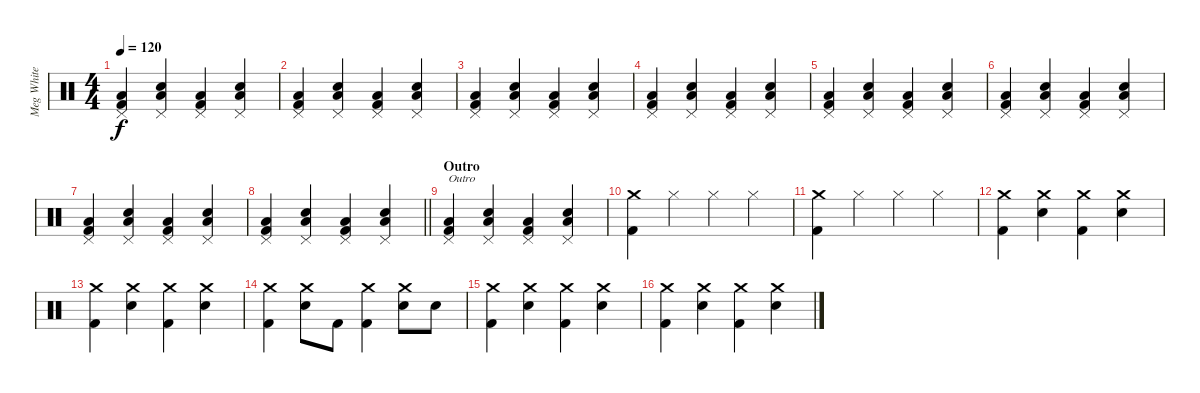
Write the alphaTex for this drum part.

\track ("Meg White" "Meg White") {instrument percussion}
\staff {score}
\articulation defaults
\ts (4 4)
\tempo 120
\clef neutral
\ks c
("Pedal Hi-Hat (hit)" "Low Floor Tom (hit)" "Kick (hit) 2").4{dy f} ("Pedal Hi-Hat (hit)" "Low Floor Tom (hit)" "Snare (hit) 2").4 ("Pedal Hi-Hat (hit)" "Low Floor Tom (hit)" "Kick (hit) 2").4 ("Pedal Hi-Hat (hit)" "Low Floor Tom (hit)" "Snare (hit) 2").4 |
("Pedal Hi-Hat (hit)" "Low Floor Tom (hit)" "Kick (hit) 2").4 ("Pedal Hi-Hat (hit)" "Low Floor Tom (hit)" "Snare (hit) 2").4 ("Pedal Hi-Hat (hit)" "Low Floor Tom (hit)" "Kick (hit) 2").4 ("Pedal Hi-Hat (hit)" "Low Floor Tom (hit)" "Snare (hit) 2").4 |
("Pedal Hi-Hat (hit)" "Low Floor Tom (hit)" "Kick (hit) 2").4 ("Pedal Hi-Hat (hit)" "Low Floor Tom (hit)" "Snare (hit) 2").4 ("Pedal Hi-Hat (hit)" "Low Floor Tom (hit)" "Kick (hit) 2").4 ("Pedal Hi-Hat (hit)" "Low Floor Tom (hit)" "Snare (hit) 2").4 |
("Pedal Hi-Hat (hit)" "Low Floor Tom (hit)" "Kick (hit) 2").4 ("Pedal Hi-Hat (hit)" "Low Floor Tom (hit)" "Snare (hit) 2").4 ("Pedal Hi-Hat (hit)" "Low Floor Tom (hit)" "Kick (hit) 2").4 ("Pedal Hi-Hat (hit)" "Low Floor Tom (hit)" "Snare (hit) 2").4 |
("Pedal Hi-Hat (hit)" "Low Floor Tom (hit)" "Kick (hit) 2").4 ("Pedal Hi-Hat (hit)" "Low Floor Tom (hit)" "Snare (hit) 2").4 ("Pedal Hi-Hat (hit)" "Low Floor Tom (hit)" "Kick (hit) 2").4 ("Pedal Hi-Hat (hit)" "Low Floor Tom (hit)" "Snare (hit) 2").4 |
("Pedal Hi-Hat (hit)" "Low Floor Tom (hit)" "Kick (hit) 2").4 ("Pedal Hi-Hat (hit)" "Low Floor Tom (hit)" "Snare (hit) 2").4 ("Pedal Hi-Hat (hit)" "Low Floor Tom (hit)" "Kick (hit) 2").4 ("Pedal Hi-Hat (hit)" "Low Floor Tom (hit)" "Snare (hit) 2").4 |
("Pedal Hi-Hat (hit)" "Low Floor Tom (hit)" "Kick (hit) 2").4 ("Pedal Hi-Hat (hit)" "Low Floor Tom (hit)" "Snare (hit) 2").4 ("Pedal Hi-Hat (hit)" "Low Floor Tom (hit)" "Kick (hit) 2").4 ("Pedal Hi-Hat (hit)" "Low Floor Tom (hit)" "Snare (hit) 2").4 |
\barLineRight lightlight
("Pedal Hi-Hat (hit)" "Low Floor Tom (hit)" "Kick (hit) 2").4 ("Pedal Hi-Hat (hit)" "Low Floor Tom (hit)" "Snare (hit) 2").4 ("Pedal Hi-Hat (hit)" "Low Floor Tom (hit)" "Kick (hit) 2").4 ("Pedal Hi-Hat (hit)" "Low Floor Tom (hit)" "Snare (hit) 2").4 |
\section ("" "Outro")
("Pedal Hi-Hat (hit)" "Low Floor Tom (hit)" "Kick (hit) 2").4{txt "Outro"} ("Pedal Hi-Hat (hit)" "Low Floor Tom (hit)" "Snare (hit) 2").4 ("Pedal Hi-Hat (hit)" "Low Floor Tom (hit)" "Kick (hit) 2").4 ("Pedal Hi-Hat (hit)" "Low Floor Tom (hit)" "Snare (hit) 2").4 |
("Crash medium (hit)" "Kick (hit) 2").4 "Hi-Hat (closed)".4 "Hi-Hat (closed)".4 "Hi-Hat (closed)".4 |
("Crash medium (hit)" "Kick (hit) 2").4 "Hi-Hat (closed)".4 "Hi-Hat (closed)".4 "Hi-Hat (closed)".4 |
("Crash medium (hit)" "Kick (hit) 2").4 ("Crash medium (hit)" "Snare (hit) 2").4 ("Crash medium (hit)" "Kick (hit) 2").4 ("Crash medium (hit)" "Snare (hit) 2").4 |
("Crash medium (hit)" "Kick (hit) 2").4 ("Crash medium (hit)" "Snare (hit) 2").4 ("Crash medium (hit)" "Kick (hit) 2").4 ("Crash medium (hit)" "Snare (hit) 2").4 |
("Crash medium (hit)" "Kick (hit) 2").4 ("Crash medium (hit)" "Snare (hit) 2").8 "Kick (hit) 2".8 ("Crash medium (hit)" "Kick (hit) 2").4 ("Crash medium (hit)" "Snare (hit) 2").8 "Snare (hit) 2".8 |
("Crash medium (hit)" "Kick (hit) 2").4 ("Crash medium (hit)" "Snare (hit) 2").4 ("Crash medium (hit)" "Kick (hit) 2").4 ("Crash medium (hit)" "Snare (hit) 2").4 |
("Crash medium (hit)" "Kick (hit) 2").4 ("Crash medium (hit)" "Snare (hit) 2").4 ("Crash medium (hit)" "Kick (hit) 2").4 ("Crash medium (hit)" "Snare (hit) 2").4
